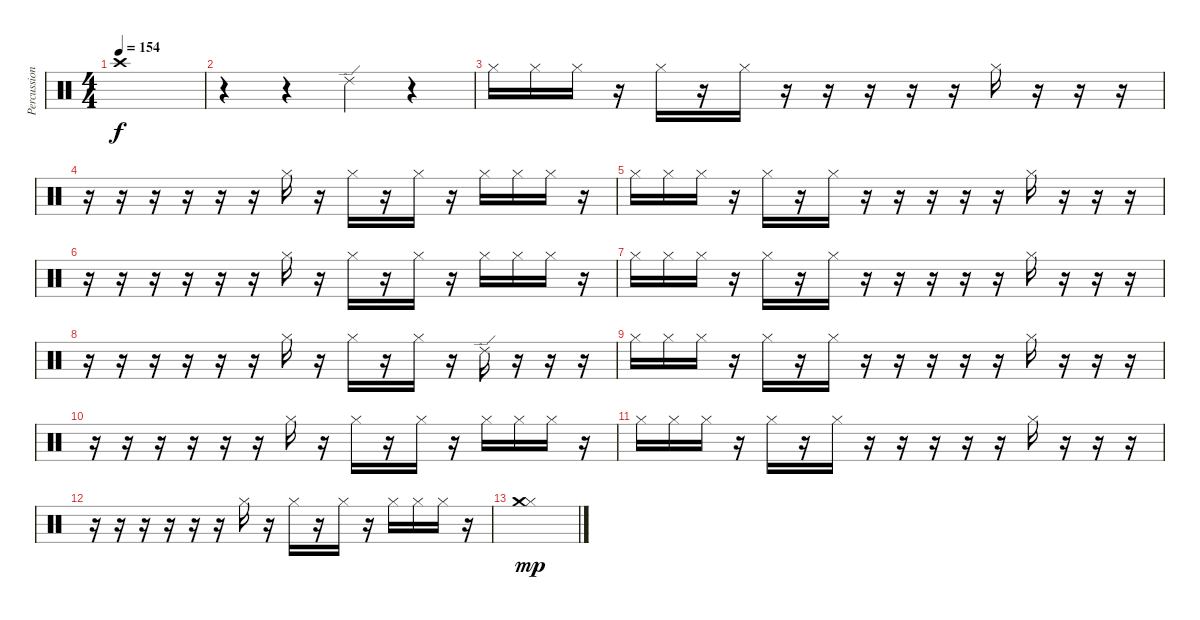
\track ("Percussion" "Percussion") {instrument percussion}
\staff {score}
\articulation defaults
\ts (4 4)
\tempo 154
\clef neutral
\ks c "Crash high (hit)".1{dy f}
|
r.4 r.4 "Ride (edge) 2".4 r.4 |
"Hi-Hat (closed)".16 "Hi-Hat (closed)".16 "Hi-Hat (closed)".16 r.16 "Hi-Hat (closed)".16 r.16 "Hi-Hat (closed)".16 r.16 r.16 r.16 r.16 r.16 "Hi-Hat (closed)".16 r.16 r.16 r.16 |
r.16 r.16 r.16 r.16 r.16 r.16 "Hi-Hat (closed)".16 r.16 "Hi-Hat (closed)".16 r.16 "Hi-Hat (closed)".16 r.16 "Hi-Hat (closed)".16 "Hi-Hat (closed)".16 "Hi-Hat (closed)".16 r.16 |
"Hi-Hat (closed)".16 "Hi-Hat (closed)".16 "Hi-Hat (closed)".16 r.16 "Hi-Hat (closed)".16 r.16 "Hi-Hat (closed)".16 r.16 r.16 r.16 r.16 r.16 "Hi-Hat (closed)".16 r.16 r.16 r.16 |
r.16 r.16 r.16 r.16 r.16 r.16 "Hi-Hat (closed)".16 r.16 "Hi-Hat (closed)".16 r.16 "Hi-Hat (closed)".16 r.16 "Hi-Hat (closed)".16 "Hi-Hat (closed)".16 "Hi-Hat (closed)".16 r.16 |
"Hi-Hat (closed)".16 "Hi-Hat (closed)".16 "Hi-Hat (closed)".16 r.16 "Hi-Hat (closed)".16 r.16 "Hi-Hat (closed)".16 r.16 r.16 r.16 r.16 r.16 "Hi-Hat (closed)".16 r.16 r.16 r.16 |
r.16 r.16 r.16 r.16 r.16 r.16 "Hi-Hat (closed)".16 r.16 "Hi-Hat (closed)".16 r.16 "Hi-Hat (closed)".16 r.16 "Ride (edge) 2".16 r.16 r.16 r.16 |
"Hi-Hat (closed)".16 "Hi-Hat (closed)".16 "Hi-Hat (closed)".16 r.16 "Hi-Hat (closed)".16 r.16 "Hi-Hat (closed)".16 r.16 r.16 r.16 r.16 r.16 "Hi-Hat (closed)".16 r.16 r.16 r.16 |
r.16 r.16 r.16 r.16 r.16 r.16 "Hi-Hat (closed)".16 r.16 "Hi-Hat (closed)".16 r.16 "Hi-Hat (closed)".16 r.16 "Hi-Hat (closed)".16 "Hi-Hat (closed)".16 "Hi-Hat (closed)".16 r.16 |
"Hi-Hat (closed)".16 "Hi-Hat (closed)".16 "Hi-Hat (closed)".16 r.16 "Hi-Hat (closed)".16 r.16 "Hi-Hat (closed)".16 r.16 r.16 r.16 r.16 r.16 "Hi-Hat (closed)".16 r.16 r.16 r.16 |
r.16 r.16 r.16 r.16 r.16 r.16 "Hi-Hat (closed)".16 r.16 "Hi-Hat (closed)".16 r.16 "Hi-Hat (closed)".16 r.16 "Hi-Hat (closed)".16 "Hi-Hat (closed)".16 "Hi-Hat (closed)".16 r.16 |
("Hi-Hat (closed)" "Crash medium (hit)").1{dy mp}
